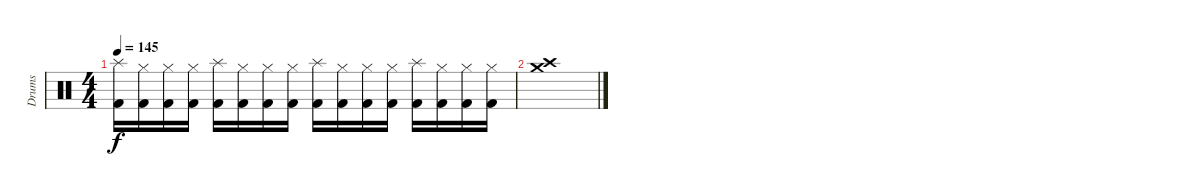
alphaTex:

\track ("Drums" "Drums") {instrument percussion}
\staff {score}
\articulation defaults
\ts (4 4)
\tempo 145
\clef neutral
\ks c
("Splash (hit)" "Kick (hit) 2").16{dy f} ("Hi-Hat (closed)" "Kick (hit) 2").16 ("Hi-Hat (closed)" "Kick (hit) 2").16 ("Hi-Hat (closed)" "Kick (hit) 2").16 ("Splash (hit)" "Kick (hit) 2").16 ("Hi-Hat (closed)" "Kick (hit) 2").16 ("Hi-Hat (closed)" "Kick (hit) 2").16 ("Hi-Hat (closed)" "Kick (hit) 2").16 ("Splash (hit)" "Kick (hit) 2").16 ("Hi-Hat (closed)" "Kick (hit) 2").16 ("Hi-Hat (closed)" "Kick (hit) 2").16 ("Hi-Hat (closed)" "Kick (hit) 2").16 ("Splash (hit)" "Kick (hit) 2").16 ("Hi-Hat (closed)" "Kick (hit) 2").16 ("Hi-Hat (closed)" "Kick (hit) 2").16 ("Hi-Hat (closed)" "Kick (hit) 2").16 |
("Crash medium (hit)" "Crash high (hit)").1
